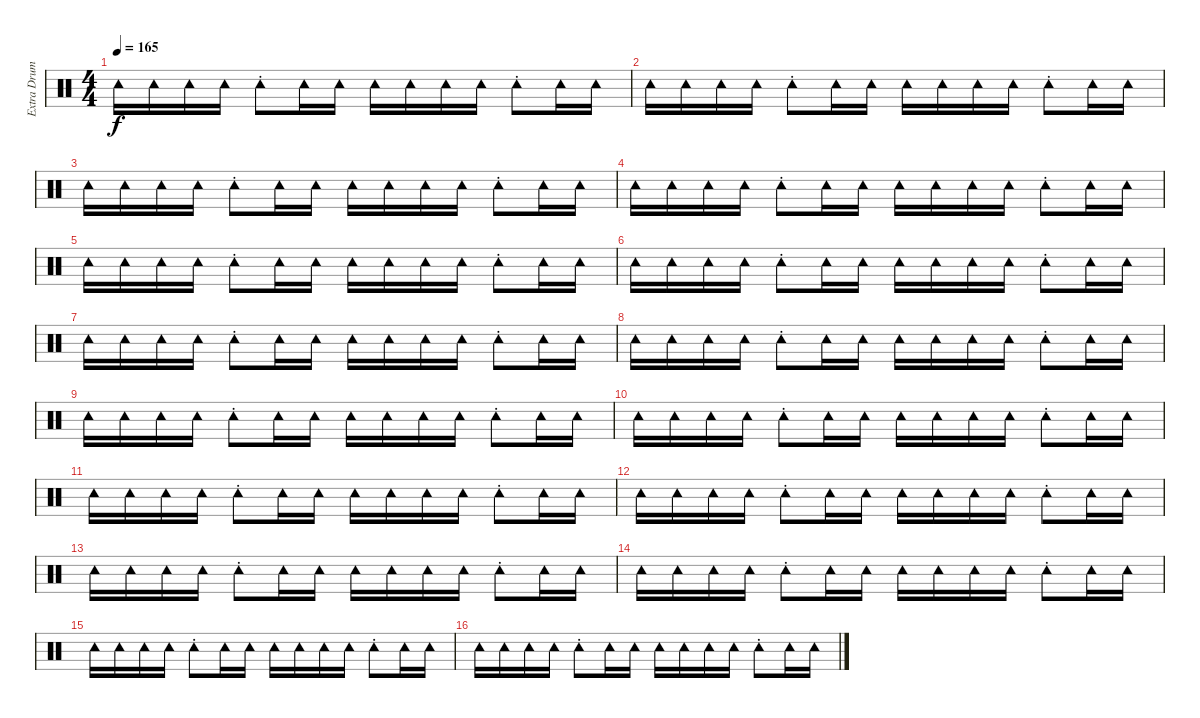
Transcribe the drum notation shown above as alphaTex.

\track ("Extra Drum : Tainaka Risu - Chan" "Extra Drum") {instrument percussion}
\staff {score}
\articulation defaults
\ts (4 4)
\tempo 165
\clef neutral
\ks c "Tambourine (hit)".16{dy f} "Tambourine (hit)".16 "Tambourine (hit)".16 "Tambourine (hit)".16 "Tambourine (hit)"{st}.8 "Tambourine (hit)".16 "Tambourine (hit)".16 "Tambourine (hit)".16 "Tambourine (hit)".16 "Tambourine (hit)".16 "Tambourine (hit)".16 "Tambourine (hit)"{st}.8 "Tambourine (hit)".16 "Tambourine (hit)".16
|
"Tambourine (hit)".16 "Tambourine (hit)".16 "Tambourine (hit)".16 "Tambourine (hit)".16 "Tambourine (hit)"{st}.8 "Tambourine (hit)".16 "Tambourine (hit)".16 "Tambourine (hit)".16 "Tambourine (hit)".16 "Tambourine (hit)".16 "Tambourine (hit)".16 "Tambourine (hit)"{st}.8 "Tambourine (hit)".16 "Tambourine (hit)".16 |
"Tambourine (hit)".16 "Tambourine (hit)".16 "Tambourine (hit)".16 "Tambourine (hit)".16 "Tambourine (hit)"{st}.8 "Tambourine (hit)".16 "Tambourine (hit)".16 "Tambourine (hit)".16 "Tambourine (hit)".16 "Tambourine (hit)".16 "Tambourine (hit)".16 "Tambourine (hit)"{st}.8 "Tambourine (hit)".16 "Tambourine (hit)".16 |
"Tambourine (hit)".16 "Tambourine (hit)".16 "Tambourine (hit)".16 "Tambourine (hit)".16 "Tambourine (hit)"{st}.8 "Tambourine (hit)".16 "Tambourine (hit)".16 "Tambourine (hit)".16 "Tambourine (hit)".16 "Tambourine (hit)".16 "Tambourine (hit)".16 "Tambourine (hit)"{st}.8 "Tambourine (hit)".16 "Tambourine (hit)".16 |
"Tambourine (hit)".16 "Tambourine (hit)".16 "Tambourine (hit)".16 "Tambourine (hit)".16 "Tambourine (hit)"{st}.8 "Tambourine (hit)".16 "Tambourine (hit)".16 "Tambourine (hit)".16 "Tambourine (hit)".16 "Tambourine (hit)".16 "Tambourine (hit)".16 "Tambourine (hit)"{st}.8 "Tambourine (hit)".16 "Tambourine (hit)".16 |
"Tambourine (hit)".16 "Tambourine (hit)".16 "Tambourine (hit)".16 "Tambourine (hit)".16 "Tambourine (hit)"{st}.8 "Tambourine (hit)".16 "Tambourine (hit)".16 "Tambourine (hit)".16 "Tambourine (hit)".16 "Tambourine (hit)".16 "Tambourine (hit)".16 "Tambourine (hit)"{st}.8 "Tambourine (hit)".16 "Tambourine (hit)".16 |
"Tambourine (hit)".16 "Tambourine (hit)".16 "Tambourine (hit)".16 "Tambourine (hit)".16 "Tambourine (hit)"{st}.8 "Tambourine (hit)".16 "Tambourine (hit)".16 "Tambourine (hit)".16 "Tambourine (hit)".16 "Tambourine (hit)".16 "Tambourine (hit)".16 "Tambourine (hit)"{st}.8 "Tambourine (hit)".16 "Tambourine (hit)".16 |
"Tambourine (hit)".16 "Tambourine (hit)".16 "Tambourine (hit)".16 "Tambourine (hit)".16 "Tambourine (hit)"{st}.8 "Tambourine (hit)".16 "Tambourine (hit)".16 "Tambourine (hit)".16 "Tambourine (hit)".16 "Tambourine (hit)".16 "Tambourine (hit)".16 "Tambourine (hit)"{st}.8 "Tambourine (hit)".16 "Tambourine (hit)".16 |
"Tambourine (hit)".16 "Tambourine (hit)".16 "Tambourine (hit)".16 "Tambourine (hit)".16 "Tambourine (hit)"{st}.8 "Tambourine (hit)".16 "Tambourine (hit)".16 "Tambourine (hit)".16 "Tambourine (hit)".16 "Tambourine (hit)".16 "Tambourine (hit)".16 "Tambourine (hit)"{st}.8 "Tambourine (hit)".16 "Tambourine (hit)".16 |
"Tambourine (hit)".16 "Tambourine (hit)".16 "Tambourine (hit)".16 "Tambourine (hit)".16 "Tambourine (hit)"{st}.8 "Tambourine (hit)".16 "Tambourine (hit)".16 "Tambourine (hit)".16 "Tambourine (hit)".16 "Tambourine (hit)".16 "Tambourine (hit)".16 "Tambourine (hit)"{st}.8 "Tambourine (hit)".16 "Tambourine (hit)".16 |
"Tambourine (hit)".16 "Tambourine (hit)".16 "Tambourine (hit)".16 "Tambourine (hit)".16 "Tambourine (hit)"{st}.8 "Tambourine (hit)".16 "Tambourine (hit)".16 "Tambourine (hit)".16 "Tambourine (hit)".16 "Tambourine (hit)".16 "Tambourine (hit)".16 "Tambourine (hit)"{st}.8 "Tambourine (hit)".16 "Tambourine (hit)".16 |
"Tambourine (hit)".16 "Tambourine (hit)".16 "Tambourine (hit)".16 "Tambourine (hit)".16 "Tambourine (hit)"{st}.8 "Tambourine (hit)".16 "Tambourine (hit)".16 "Tambourine (hit)".16 "Tambourine (hit)".16 "Tambourine (hit)".16 "Tambourine (hit)".16 "Tambourine (hit)"{st}.8 "Tambourine (hit)".16 "Tambourine (hit)".16 |
"Tambourine (hit)".16 "Tambourine (hit)".16 "Tambourine (hit)".16 "Tambourine (hit)".16 "Tambourine (hit)"{st}.8 "Tambourine (hit)".16 "Tambourine (hit)".16 "Tambourine (hit)".16 "Tambourine (hit)".16 "Tambourine (hit)".16 "Tambourine (hit)".16 "Tambourine (hit)"{st}.8 "Tambourine (hit)".16 "Tambourine (hit)".16 |
"Tambourine (hit)".16 "Tambourine (hit)".16 "Tambourine (hit)".16 "Tambourine (hit)".16 "Tambourine (hit)"{st}.8 "Tambourine (hit)".16 "Tambourine (hit)".16 "Tambourine (hit)".16 "Tambourine (hit)".16 "Tambourine (hit)".16 "Tambourine (hit)".16 "Tambourine (hit)"{st}.8 "Tambourine (hit)".16 "Tambourine (hit)".16 |
"Tambourine (hit)".16 "Tambourine (hit)".16 "Tambourine (hit)".16 "Tambourine (hit)".16 "Tambourine (hit)"{st}.8 "Tambourine (hit)".16 "Tambourine (hit)".16 "Tambourine (hit)".16 "Tambourine (hit)".16 "Tambourine (hit)".16 "Tambourine (hit)".16 "Tambourine (hit)"{st}.8 "Tambourine (hit)".16 "Tambourine (hit)".16 |
"Tambourine (hit)".16 "Tambourine (hit)".16 "Tambourine (hit)".16 "Tambourine (hit)".16 "Tambourine (hit)"{st}.8 "Tambourine (hit)".16 "Tambourine (hit)".16 "Tambourine (hit)".16 "Tambourine (hit)".16 "Tambourine (hit)".16 "Tambourine (hit)".16 "Tambourine (hit)"{st}.8 "Tambourine (hit)".16 "Tambourine (hit)".16
